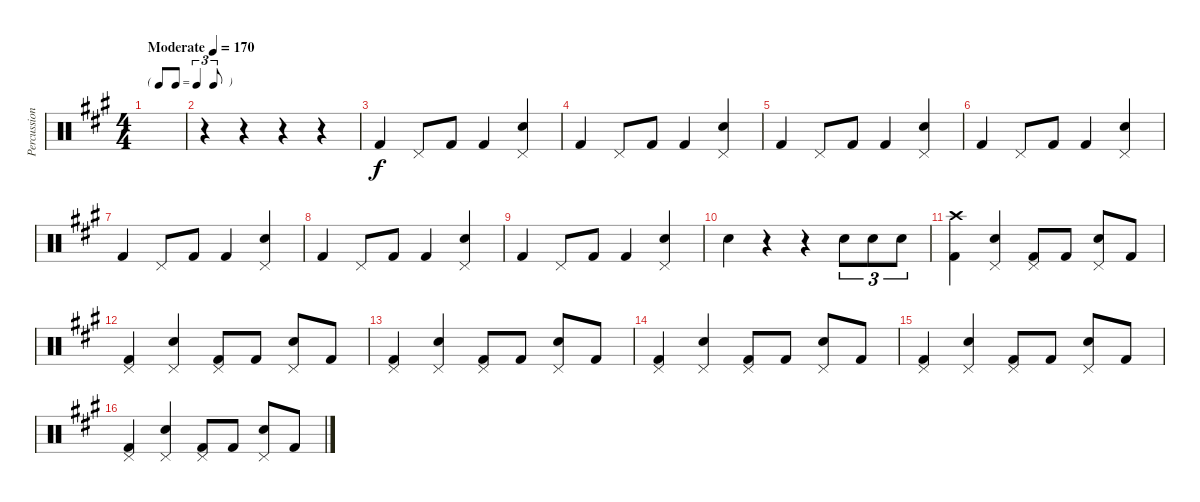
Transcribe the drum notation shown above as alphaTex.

\track ("Percussion" "Percussion") {instrument percussion}
\staff {score}
\articulation defaults
\ts (4 4)
\tf triplet8th
\tempo (170 "Moderate")
\clef neutral
\ks a
|
r.4 r.4 r.4 r.4 |
"Kick (hit) 2".4 "Pedal Hi-Hat (hit)".8 "Kick (hit) 2".8 "Kick (hit) 2".4 ("Pedal Hi-Hat (hit)" "Electric Snare (hit)").4 |
"Kick (hit) 2".4 "Pedal Hi-Hat (hit)".8 "Kick (hit) 2".8 "Kick (hit) 2".4 ("Pedal Hi-Hat (hit)" "Electric Snare (hit)").4 |
"Kick (hit) 2".4 "Pedal Hi-Hat (hit)".8 "Kick (hit) 2".8 "Kick (hit) 2".4 ("Pedal Hi-Hat (hit)" "Electric Snare (hit)").4 |
"Kick (hit) 2".4 "Pedal Hi-Hat (hit)".8 "Kick (hit) 2".8 "Kick (hit) 2".4 ("Pedal Hi-Hat (hit)" "Electric Snare (hit)").4 |
"Kick (hit) 2".4 "Pedal Hi-Hat (hit)".8 "Kick (hit) 2".8 "Kick (hit) 2".4 ("Pedal Hi-Hat (hit)" "Electric Snare (hit)").4 |
"Kick (hit) 2".4 "Pedal Hi-Hat (hit)".8 "Kick (hit) 2".8 "Kick (hit) 2".4 ("Pedal Hi-Hat (hit)" "Electric Snare (hit)").4 |
"Kick (hit) 2".4 "Pedal Hi-Hat (hit)".8 "Kick (hit) 2".8 "Kick (hit) 2".4 ("Pedal Hi-Hat (hit)" "Electric Snare (hit)").4 |
"Electric Snare (hit)".4 r.4 r.4 "Electric Snare (hit)".8{tu (3 2)} "Electric Snare (hit)".8{tu (3 2)} "Electric Snare (hit)".8{tu (3 2)} |
("Crash high (hit)" "Kick (hit) 2").4 ("Pedal Hi-Hat (hit)" "Electric Snare (hit)").4 ("Pedal Hi-Hat (hit)" "Kick (hit) 2").8 "Kick (hit) 2".8 ("Pedal Hi-Hat (hit)" "Electric Snare (hit)").8 "Kick (hit) 2".8 |
("Pedal Hi-Hat (hit)" "Kick (hit) 2").4 ("Pedal Hi-Hat (hit)" "Electric Snare (hit)").4 ("Pedal Hi-Hat (hit)" "Kick (hit) 2").8 "Kick (hit) 2".8 ("Pedal Hi-Hat (hit)" "Electric Snare (hit)").8 "Kick (hit) 2".8 |
("Pedal Hi-Hat (hit)" "Kick (hit) 2").4 ("Pedal Hi-Hat (hit)" "Electric Snare (hit)").4 ("Pedal Hi-Hat (hit)" "Kick (hit) 2").8 "Kick (hit) 2".8 ("Pedal Hi-Hat (hit)" "Electric Snare (hit)").8 "Kick (hit) 2".8 |
("Pedal Hi-Hat (hit)" "Kick (hit) 2").4 ("Pedal Hi-Hat (hit)" "Electric Snare (hit)").4 ("Pedal Hi-Hat (hit)" "Kick (hit) 2").8 "Kick (hit) 2".8 ("Pedal Hi-Hat (hit)" "Electric Snare (hit)").8 "Kick (hit) 2".8 |
("Pedal Hi-Hat (hit)" "Kick (hit) 2").4 ("Pedal Hi-Hat (hit)" "Electric Snare (hit)").4 ("Pedal Hi-Hat (hit)" "Kick (hit) 2").8 "Kick (hit) 2".8 ("Pedal Hi-Hat (hit)" "Electric Snare (hit)").8 "Kick (hit) 2".8 |
("Pedal Hi-Hat (hit)" "Kick (hit) 2").4 ("Pedal Hi-Hat (hit)" "Electric Snare (hit)").4 ("Pedal Hi-Hat (hit)" "Kick (hit) 2").8 "Kick (hit) 2".8 ("Pedal Hi-Hat (hit)" "Electric Snare (hit)").8 "Kick (hit) 2".8
